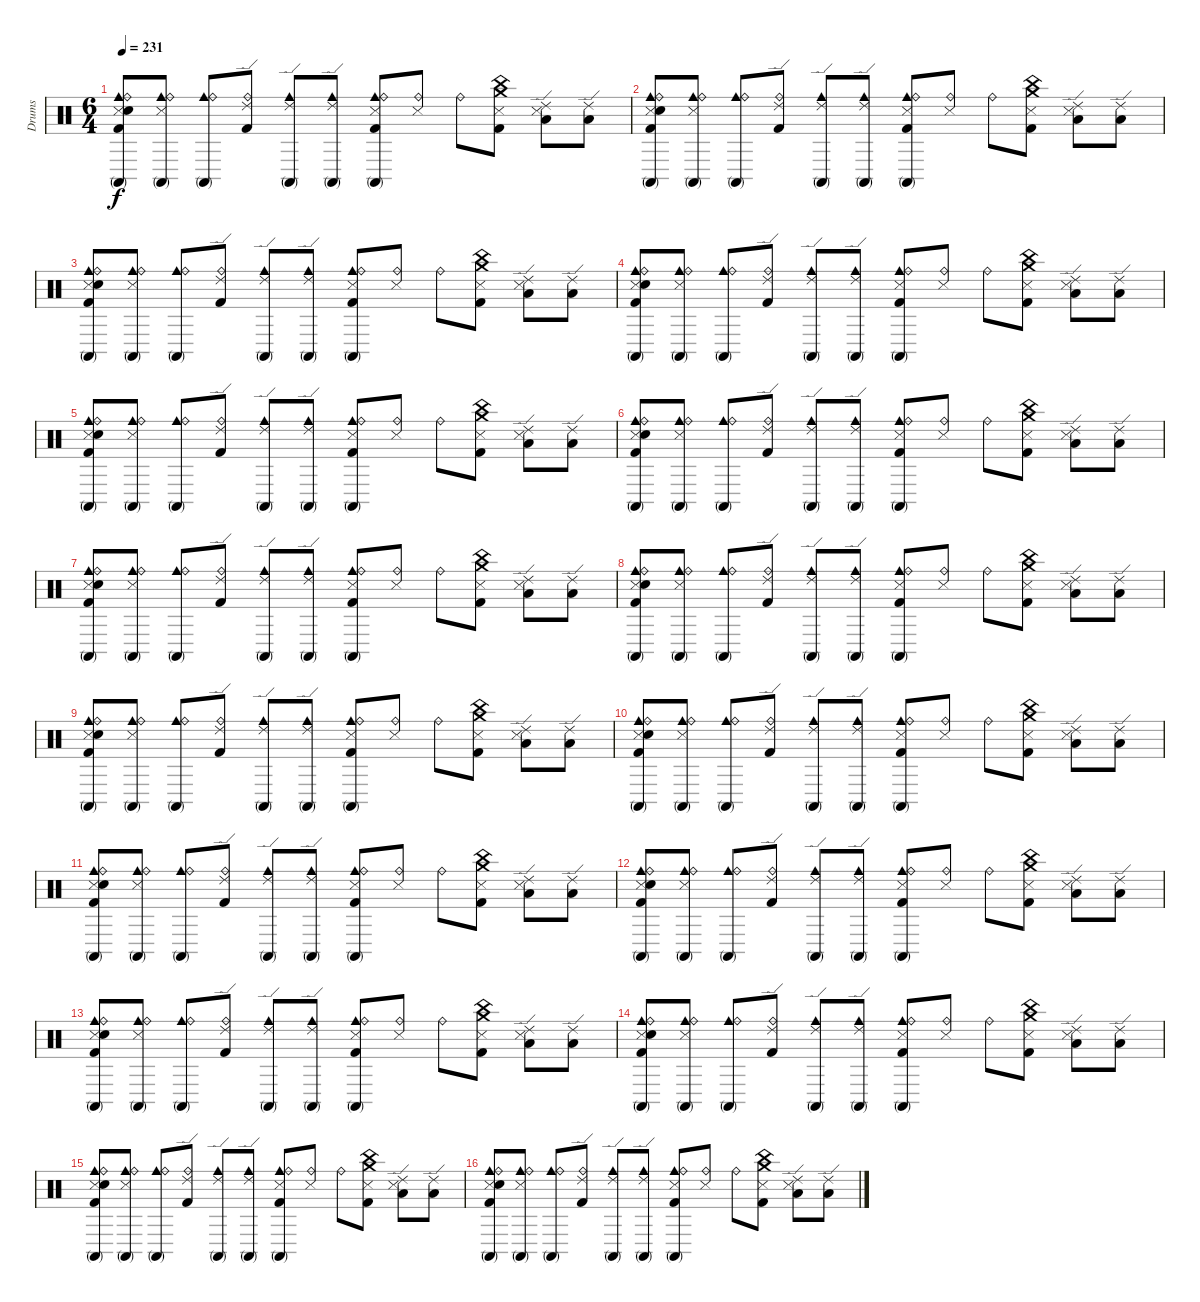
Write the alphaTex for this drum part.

\track ("Drums" "Drums") {instrument percussion}
\staff {score}
\articulation defaults
\ts (6 4)
\tempo 231
\clef neutral
\ks c
("Conga high (mute)" "Kick (hit) 2" "Snare (side stick) 3" "Snare (hit) 2" "Cowbell medium (hit)" "Ride (bell)").8{dy f} ("Snare (side stick) 3" "Cowbell medium (hit)" "Conga high (mute)" "Ride (bell)").8 ("Cowbell medium (hit)" "Conga high (mute)" "Ride (bell)").8 ("Ride (edge) 2" "Kick (hit) 2" "Ride (bell)").8 ("Conga high (mute)" "Ride (edge) 2" "Cowbell medium (hit)").8 ("Cowbell medium (hit)" "Conga high (mute)" "Ride (edge) 2").8 ("Cowbell medium (hit)" "Conga high (mute)" "Kick (hit) 2" "Snare (side stick) 3" "Ride (bell)").8 ("Snare (side stick) 3" "Ride (bell)").8 "Ride (bell)".8 ("China (hit)" "Crash medium (hit)" "Kick (hit) 2" "Snare (side stick) 3").8 ("Ride (edge) 2" "Low Tom (hit)" "Snare (side stick) 3").8 ("Ride (edge) 2" "Low Tom (hit)").8 |
("Conga high (mute)" "Kick (hit) 2" "Snare (side stick) 3" "Snare (hit) 2" "Cowbell medium (hit)" "Ride (bell)").8 ("Snare (side stick) 3" "Cowbell medium (hit)" "Conga high (mute)" "Ride (bell)").8 ("Cowbell medium (hit)" "Conga high (mute)" "Ride (bell)").8 ("Ride (edge) 2" "Kick (hit) 2" "Ride (bell)").8 ("Conga high (mute)" "Ride (edge) 2" "Cowbell medium (hit)").8 ("Cowbell medium (hit)" "Conga high (mute)" "Ride (edge) 2").8 ("Cowbell medium (hit)" "Conga high (mute)" "Kick (hit) 2" "Snare (side stick) 3" "Ride (bell)").8 ("Snare (side stick) 3" "Ride (bell)").8 "Ride (bell)".8 ("China (hit)" "Crash medium (hit)" "Kick (hit) 2" "Snare (side stick) 3").8 ("Ride (edge) 2" "Low Tom (hit)" "Snare (side stick) 3").8 ("Ride (edge) 2" "Low Tom (hit)").8 |
("Conga high (mute)" "Kick (hit) 2" "Snare (side stick) 3" "Snare (hit) 2" "Cowbell medium (hit)" "Ride (bell)").8 ("Snare (side stick) 3" "Cowbell medium (hit)" "Conga high (mute)" "Ride (bell)").8 ("Cowbell medium (hit)" "Conga high (mute)" "Ride (bell)").8 ("Ride (edge) 2" "Kick (hit) 2" "Ride (bell)").8 ("Conga high (mute)" "Ride (edge) 2" "Cowbell medium (hit)").8 ("Cowbell medium (hit)" "Conga high (mute)" "Ride (edge) 2").8 ("Cowbell medium (hit)" "Conga high (mute)" "Kick (hit) 2" "Snare (side stick) 3" "Ride (bell)").8 ("Snare (side stick) 3" "Ride (bell)").8 "Ride (bell)".8 ("China (hit)" "Crash medium (hit)" "Kick (hit) 2" "Snare (side stick) 3").8 ("Ride (edge) 2" "Low Tom (hit)" "Snare (side stick) 3").8 ("Ride (edge) 2" "Low Tom (hit)").8 |
("Conga high (mute)" "Kick (hit) 2" "Snare (side stick) 3" "Snare (hit) 2" "Cowbell medium (hit)" "Ride (bell)").8 ("Snare (side stick) 3" "Cowbell medium (hit)" "Conga high (mute)" "Ride (bell)").8 ("Cowbell medium (hit)" "Conga high (mute)" "Ride (bell)").8 ("Ride (edge) 2" "Kick (hit) 2" "Ride (bell)").8 ("Conga high (mute)" "Ride (edge) 2" "Cowbell medium (hit)").8 ("Cowbell medium (hit)" "Conga high (mute)" "Ride (edge) 2").8 ("Cowbell medium (hit)" "Conga high (mute)" "Kick (hit) 2" "Snare (side stick) 3" "Ride (bell)").8 ("Snare (side stick) 3" "Ride (bell)").8 "Ride (bell)".8 ("China (hit)" "Crash medium (hit)" "Kick (hit) 2" "Snare (side stick) 3").8 ("Ride (edge) 2" "Low Tom (hit)" "Snare (side stick) 3").8 ("Ride (edge) 2" "Low Tom (hit)").8 |
("Conga high (mute)" "Kick (hit) 2" "Snare (side stick) 3" "Snare (hit) 2" "Cowbell medium (hit)" "Ride (bell)").8 ("Snare (side stick) 3" "Cowbell medium (hit)" "Conga high (mute)" "Ride (bell)").8 ("Cowbell medium (hit)" "Conga high (mute)" "Ride (bell)").8 ("Ride (edge) 2" "Kick (hit) 2" "Ride (bell)").8 ("Conga high (mute)" "Ride (edge) 2" "Cowbell medium (hit)").8 ("Cowbell medium (hit)" "Conga high (mute)" "Ride (edge) 2").8 ("Cowbell medium (hit)" "Conga high (mute)" "Kick (hit) 2" "Snare (side stick) 3" "Ride (bell)").8 ("Snare (side stick) 3" "Ride (bell)").8 "Ride (bell)".8 ("China (hit)" "Crash medium (hit)" "Kick (hit) 2" "Snare (side stick) 3").8 ("Ride (edge) 2" "Low Tom (hit)" "Snare (side stick) 3").8 ("Ride (edge) 2" "Low Tom (hit)").8 |
("Conga high (mute)" "Kick (hit) 2" "Snare (side stick) 3" "Snare (hit) 2" "Cowbell medium (hit)" "Ride (bell)").8 ("Snare (side stick) 3" "Cowbell medium (hit)" "Conga high (mute)" "Ride (bell)").8 ("Cowbell medium (hit)" "Conga high (mute)" "Ride (bell)").8 ("Ride (edge) 2" "Kick (hit) 2" "Ride (bell)").8 ("Conga high (mute)" "Ride (edge) 2" "Cowbell medium (hit)").8 ("Cowbell medium (hit)" "Conga high (mute)" "Ride (edge) 2").8 ("Cowbell medium (hit)" "Conga high (mute)" "Kick (hit) 2" "Snare (side stick) 3" "Ride (bell)").8 ("Snare (side stick) 3" "Ride (bell)").8 "Ride (bell)".8 ("China (hit)" "Crash medium (hit)" "Kick (hit) 2" "Snare (side stick) 3").8 ("Ride (edge) 2" "Low Tom (hit)" "Snare (side stick) 3").8 ("Ride (edge) 2" "Low Tom (hit)").8 |
("Conga high (mute)" "Kick (hit) 2" "Snare (side stick) 3" "Snare (hit) 2" "Cowbell medium (hit)" "Ride (bell)").8 ("Snare (side stick) 3" "Cowbell medium (hit)" "Conga high (mute)" "Ride (bell)").8 ("Cowbell medium (hit)" "Conga high (mute)" "Ride (bell)").8 ("Ride (edge) 2" "Kick (hit) 2" "Ride (bell)").8 ("Conga high (mute)" "Ride (edge) 2" "Cowbell medium (hit)").8 ("Cowbell medium (hit)" "Conga high (mute)" "Ride (edge) 2").8 ("Cowbell medium (hit)" "Conga high (mute)" "Kick (hit) 2" "Snare (side stick) 3" "Ride (bell)").8 ("Snare (side stick) 3" "Ride (bell)").8 "Ride (bell)".8 ("China (hit)" "Crash medium (hit)" "Kick (hit) 2" "Snare (side stick) 3").8 ("Ride (edge) 2" "Low Tom (hit)" "Snare (side stick) 3").8 ("Ride (edge) 2" "Low Tom (hit)").8 |
("Conga high (mute)" "Kick (hit) 2" "Snare (side stick) 3" "Snare (hit) 2" "Cowbell medium (hit)" "Ride (bell)").8 ("Snare (side stick) 3" "Cowbell medium (hit)" "Conga high (mute)" "Ride (bell)").8 ("Cowbell medium (hit)" "Conga high (mute)" "Ride (bell)").8 ("Ride (edge) 2" "Kick (hit) 2" "Ride (bell)").8 ("Conga high (mute)" "Ride (edge) 2" "Cowbell medium (hit)").8 ("Cowbell medium (hit)" "Conga high (mute)" "Ride (edge) 2").8 ("Cowbell medium (hit)" "Conga high (mute)" "Kick (hit) 2" "Snare (side stick) 3" "Ride (bell)").8 ("Snare (side stick) 3" "Ride (bell)").8 "Ride (bell)".8 ("China (hit)" "Crash medium (hit)" "Kick (hit) 2" "Snare (side stick) 3").8 ("Ride (edge) 2" "Low Tom (hit)" "Snare (side stick) 3").8 ("Ride (edge) 2" "Low Tom (hit)").8 |
("Conga high (mute)" "Kick (hit) 2" "Snare (side stick) 3" "Snare (hit) 2" "Cowbell medium (hit)" "Ride (bell)").8 ("Snare (side stick) 3" "Cowbell medium (hit)" "Conga high (mute)" "Ride (bell)").8 ("Cowbell medium (hit)" "Conga high (mute)" "Ride (bell)").8 ("Ride (edge) 2" "Kick (hit) 2" "Ride (bell)").8 ("Conga high (mute)" "Ride (edge) 2" "Cowbell medium (hit)").8 ("Cowbell medium (hit)" "Conga high (mute)" "Ride (edge) 2").8 ("Cowbell medium (hit)" "Conga high (mute)" "Kick (hit) 2" "Snare (side stick) 3" "Ride (bell)").8 ("Snare (side stick) 3" "Ride (bell)").8 "Ride (bell)".8 ("China (hit)" "Crash medium (hit)" "Kick (hit) 2" "Snare (side stick) 3").8 ("Ride (edge) 2" "Low Tom (hit)" "Snare (side stick) 3").8 ("Ride (edge) 2" "Low Tom (hit)").8 |
("Conga high (mute)" "Kick (hit) 2" "Snare (side stick) 3" "Snare (hit) 2" "Cowbell medium (hit)" "Ride (bell)").8 ("Snare (side stick) 3" "Cowbell medium (hit)" "Conga high (mute)" "Ride (bell)").8 ("Cowbell medium (hit)" "Conga high (mute)" "Ride (bell)").8 ("Ride (edge) 2" "Kick (hit) 2" "Ride (bell)").8 ("Conga high (mute)" "Ride (edge) 2" "Cowbell medium (hit)").8 ("Cowbell medium (hit)" "Conga high (mute)" "Ride (edge) 2").8 ("Cowbell medium (hit)" "Conga high (mute)" "Kick (hit) 2" "Snare (side stick) 3" "Ride (bell)").8 ("Snare (side stick) 3" "Ride (bell)").8 "Ride (bell)".8 ("China (hit)" "Crash medium (hit)" "Kick (hit) 2" "Snare (side stick) 3").8 ("Ride (edge) 2" "Low Tom (hit)" "Snare (side stick) 3").8 ("Ride (edge) 2" "Low Tom (hit)").8 |
("Conga high (mute)" "Kick (hit) 2" "Snare (side stick) 3" "Snare (hit) 2" "Cowbell medium (hit)" "Ride (bell)").8 ("Snare (side stick) 3" "Cowbell medium (hit)" "Conga high (mute)" "Ride (bell)").8 ("Cowbell medium (hit)" "Conga high (mute)" "Ride (bell)").8 ("Ride (edge) 2" "Kick (hit) 2" "Ride (bell)").8 ("Conga high (mute)" "Ride (edge) 2" "Cowbell medium (hit)").8 ("Cowbell medium (hit)" "Conga high (mute)" "Ride (edge) 2").8 ("Cowbell medium (hit)" "Conga high (mute)" "Kick (hit) 2" "Snare (side stick) 3" "Ride (bell)").8 ("Snare (side stick) 3" "Ride (bell)").8 "Ride (bell)".8 ("China (hit)" "Crash medium (hit)" "Kick (hit) 2" "Snare (side stick) 3").8 ("Ride (edge) 2" "Low Tom (hit)" "Snare (side stick) 3").8 ("Ride (edge) 2" "Low Tom (hit)").8 |
("Conga high (mute)" "Kick (hit) 2" "Snare (side stick) 3" "Snare (hit) 2" "Cowbell medium (hit)" "Ride (bell)").8 ("Snare (side stick) 3" "Cowbell medium (hit)" "Conga high (mute)" "Ride (bell)").8 ("Cowbell medium (hit)" "Conga high (mute)" "Ride (bell)").8 ("Ride (edge) 2" "Kick (hit) 2" "Ride (bell)").8 ("Conga high (mute)" "Ride (edge) 2" "Cowbell medium (hit)").8 ("Cowbell medium (hit)" "Conga high (mute)" "Ride (edge) 2").8 ("Cowbell medium (hit)" "Conga high (mute)" "Kick (hit) 2" "Snare (side stick) 3" "Ride (bell)").8 ("Snare (side stick) 3" "Ride (bell)").8 "Ride (bell)".8 ("China (hit)" "Crash medium (hit)" "Kick (hit) 2" "Snare (side stick) 3").8 ("Ride (edge) 2" "Low Tom (hit)" "Snare (side stick) 3").8 ("Ride (edge) 2" "Low Tom (hit)").8 |
("Conga high (mute)" "Kick (hit) 2" "Snare (side stick) 3" "Snare (hit) 2" "Cowbell medium (hit)" "Ride (bell)").8 ("Snare (side stick) 3" "Cowbell medium (hit)" "Conga high (mute)" "Ride (bell)").8 ("Cowbell medium (hit)" "Conga high (mute)" "Ride (bell)").8 ("Ride (edge) 2" "Kick (hit) 2" "Ride (bell)").8 ("Conga high (mute)" "Ride (edge) 2" "Cowbell medium (hit)").8 ("Cowbell medium (hit)" "Conga high (mute)" "Ride (edge) 2").8 ("Cowbell medium (hit)" "Conga high (mute)" "Kick (hit) 2" "Snare (side stick) 3" "Ride (bell)").8 ("Snare (side stick) 3" "Ride (bell)").8 "Ride (bell)".8 ("China (hit)" "Crash medium (hit)" "Kick (hit) 2" "Snare (side stick) 3").8 ("Ride (edge) 2" "Low Tom (hit)" "Snare (side stick) 3").8 ("Ride (edge) 2" "Low Tom (hit)").8 |
("Conga high (mute)" "Kick (hit) 2" "Snare (side stick) 3" "Snare (hit) 2" "Cowbell medium (hit)" "Ride (bell)").8 ("Snare (side stick) 3" "Cowbell medium (hit)" "Conga high (mute)" "Ride (bell)").8 ("Cowbell medium (hit)" "Conga high (mute)" "Ride (bell)").8 ("Ride (edge) 2" "Kick (hit) 2" "Ride (bell)").8 ("Conga high (mute)" "Ride (edge) 2" "Cowbell medium (hit)").8 ("Cowbell medium (hit)" "Conga high (mute)" "Ride (edge) 2").8 ("Cowbell medium (hit)" "Conga high (mute)" "Kick (hit) 2" "Snare (side stick) 3" "Ride (bell)").8 ("Snare (side stick) 3" "Ride (bell)").8 "Ride (bell)".8 ("China (hit)" "Crash medium (hit)" "Kick (hit) 2" "Snare (side stick) 3").8 ("Ride (edge) 2" "Low Tom (hit)" "Snare (side stick) 3").8 ("Ride (edge) 2" "Low Tom (hit)").8 |
("Conga high (mute)" "Kick (hit) 2" "Snare (side stick) 3" "Snare (hit) 2" "Cowbell medium (hit)" "Ride (bell)").8 ("Snare (side stick) 3" "Cowbell medium (hit)" "Conga high (mute)" "Ride (bell)").8 ("Cowbell medium (hit)" "Conga high (mute)" "Ride (bell)").8 ("Ride (edge) 2" "Kick (hit) 2" "Ride (bell)").8 ("Conga high (mute)" "Ride (edge) 2" "Cowbell medium (hit)").8 ("Cowbell medium (hit)" "Conga high (mute)" "Ride (edge) 2").8 ("Cowbell medium (hit)" "Conga high (mute)" "Kick (hit) 2" "Snare (side stick) 3" "Ride (bell)").8 ("Snare (side stick) 3" "Ride (bell)").8 "Ride (bell)".8 ("China (hit)" "Crash medium (hit)" "Kick (hit) 2" "Snare (side stick) 3").8 ("Ride (edge) 2" "Low Tom (hit)" "Snare (side stick) 3").8 ("Ride (edge) 2" "Low Tom (hit)").8 |
("Conga high (mute)" "Kick (hit) 2" "Snare (side stick) 3" "Snare (hit) 2" "Cowbell medium (hit)" "Ride (bell)").8 ("Snare (side stick) 3" "Cowbell medium (hit)" "Conga high (mute)" "Ride (bell)").8 ("Cowbell medium (hit)" "Conga high (mute)" "Ride (bell)").8 ("Ride (edge) 2" "Kick (hit) 2" "Ride (bell)").8 ("Conga high (mute)" "Ride (edge) 2" "Cowbell medium (hit)").8 ("Cowbell medium (hit)" "Conga high (mute)" "Ride (edge) 2").8 ("Cowbell medium (hit)" "Conga high (mute)" "Kick (hit) 2" "Snare (side stick) 3" "Ride (bell)").8 ("Snare (side stick) 3" "Ride (bell)").8 "Ride (bell)".8 ("China (hit)" "Crash medium (hit)" "Kick (hit) 2" "Snare (side stick) 3").8 ("Ride (edge) 2" "Low Tom (hit)" "Snare (side stick) 3").8 ("Ride (edge) 2" "Low Tom (hit)").8
